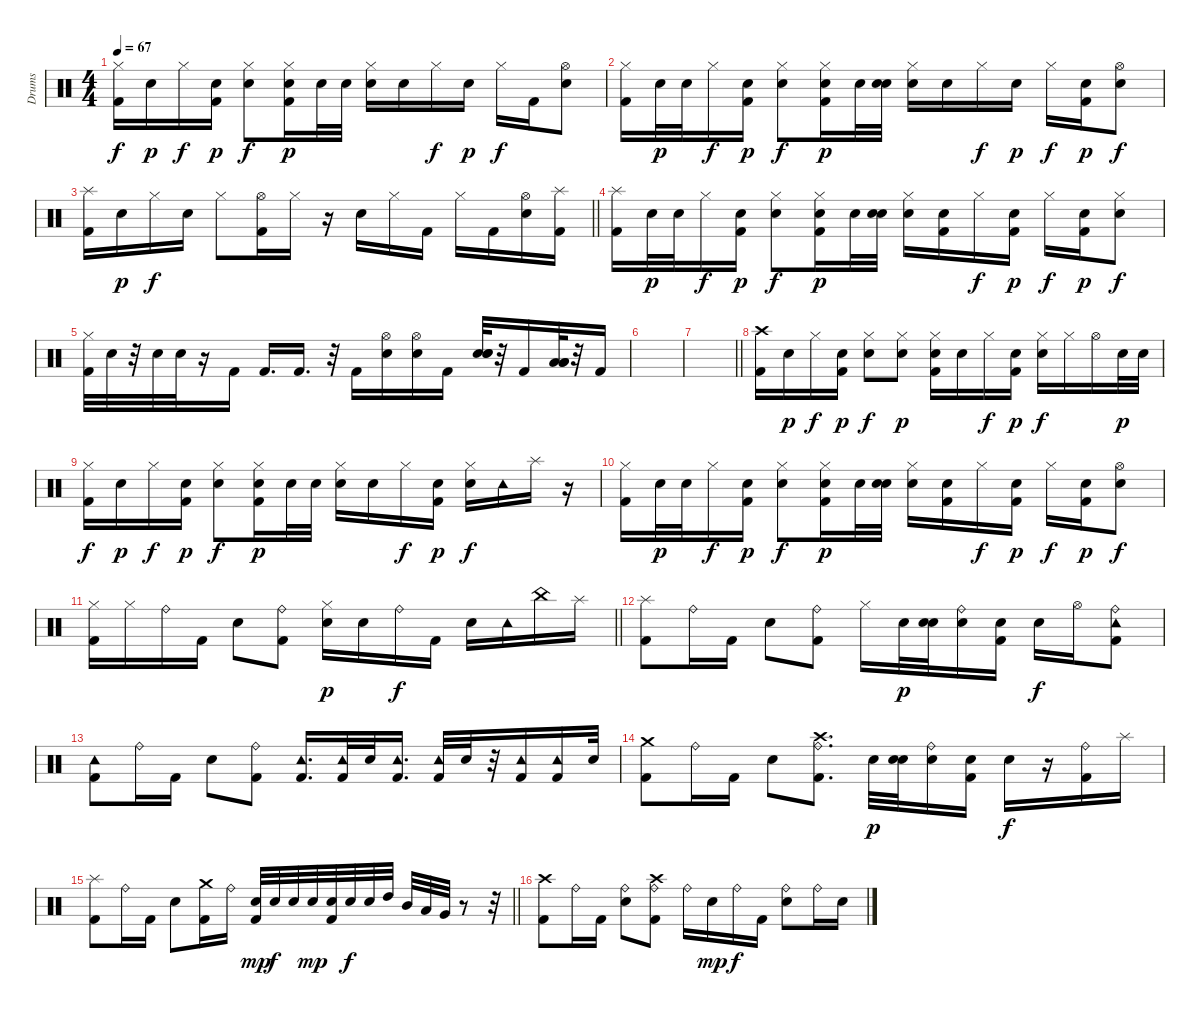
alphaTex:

\track ("Drums" "Drums") {instrument percussion}
\staff {score}
\articulation defaults
\ts (4 4)
\tempo 67
\clef neutral
\ks c
("Kick (hit) 2" "Hi-Hat (closed)").16{dy f} "Electric Snare (hit)".16{dy p} "Hi-Hat (closed)".16{dy f} ("Kick (hit) 2" "Electric Snare (hit)").16{dy p} ("Hi-Hat (closed)" "Electric Snare (hit)").8{dy f} ("Hi-Hat (closed)" "Kick (hit) 2" "Electric Snare (hit)").16{dy p} "Electric Snare (hit)".32 "Electric Snare (hit)".32 ("Hi-Hat (closed)" "Electric Snare (hit)").16 "Electric Snare (hit)".16 "Hi-Hat (closed)".16{dy f} "Electric Snare (hit)".16{dy p} "Hi-Hat (closed)".16{dy f} "Kick (hit) 2".16 ("Electric Snare (hit)" "Hi-Hat (open)").8 |
("Hi-Hat (closed)" "Kick (hit) 2").16 "Electric Snare (hit)".32{dy p} "Electric Snare (hit)".32 "Hi-Hat (closed)".16{dy f} ("Kick (hit) 2" "Electric Snare (hit)").16{dy p} ("Hi-Hat (closed)" "Electric Snare (hit)").8{dy f} ("Hi-Hat (closed)" "Kick (hit) 2" "Electric Snare (hit)").16{dy p} "Electric Snare (hit)".32 ("Electric Snare (hit)" "Electric Snare (hit)").32 ("Hi-Hat (closed)" "Electric Snare (hit)").16 "Electric Snare (hit)".16 "Hi-Hat (closed)".16{dy f} "Electric Snare (hit)".16{dy p} "Hi-Hat (closed)".16{dy f} ("Kick (hit) 2" "Electric Snare (hit)").16{dy p} ("Hi-Hat (open)" "Electric Snare (hit)").8{dy f} |
\barLineRight lightlight
("Kick (hit) 2" "Splash (hit)").16 "Electric Snare (hit)".16{dy p} "Hi-Hat (closed)".16{dy f} "Electric Snare (hit)".16 "Hi-Hat (closed)".8 ("Kick (hit) 2" "Hi-Hat (open)").16 "Hi-Hat (closed)".16 r.16 "Electric Snare (hit)".16 "Hi-Hat (closed)".16 "Kick (hit) 2".16 "Hi-Hat (closed)".16 "Kick (hit) 2".16 ("Electric Snare (hit)" "Hi-Hat (open)").16 ("Kick (hit) 2" "Splash (hit)").16 |
("Kick (hit) 2" "Splash (hit)").16 "Electric Snare (hit)".32{dy p} "Electric Snare (hit)".32 "Hi-Hat (closed)".16{dy f} ("Kick (hit) 2" "Electric Snare (hit)").16{dy p} ("Hi-Hat (closed)" "Electric Snare (hit)").8{dy f} ("Hi-Hat (closed)" "Kick (hit) 2" "Electric Snare (hit)").16{dy p} "Electric Snare (hit)".32 ("Electric Snare (hit)" "Electric Snare (hit)").32 ("Hi-Hat (closed)" "Electric Snare (hit)").16 ("Kick (hit) 2" "Electric Snare (hit)").16 "Hi-Hat (closed)".16{dy f} ("Kick (hit) 2" "Electric Snare (hit)").16{dy p} "Hi-Hat (closed)".16{dy f} ("Kick (hit) 2" "Electric Snare (hit)").16{dy p} ("Electric Snare (hit)" "Hi-Hat (closed)").8{dy f} |
("Kick (hit) 2" "Hi-Hat (closed)").32 "Electric Snare (hit)".32 r.32 "Electric Snare (hit)".32 "Electric Snare (hit)".32 r.16 "Kick (hit) 2".16 "Kick (hit) 2".16{d} "Kick (hit) 2".16{d} r.32 "Kick (hit) 2".16 ("Electric Snare (hit)" "Hi-Hat (open)").16 ("Electric Snare (hit)" "Hi-Hat (open)").16 "Kick (hit) 2".16 ("Electric Snare (hit)" "Electric Snare (hit)" "Electric Snare (hit)").32 r.32 "Kick (hit) 2".16 ("Low Tom (hit)" "Low Tom (hit)" "Low Tom (hit)").32 r.32 "Kick (hit) 2".16 |
|
\barLineRight lightlight
|
("Crash high (hit)" "Kick (hit) 2").16 "Electric Snare (hit)".16{dy p} "Hi-Hat (closed)".16{dy f} ("Kick (hit) 2" "Electric Snare (hit)").16{dy p} ("Hi-Hat (closed)" "Electric Snare (hit)").8{dy f} ("Hi-Hat (closed)" "Electric Snare (hit)").8{dy p} ("Hi-Hat (closed)" "Kick (hit) 2" "Electric Snare (hit)").16 "Electric Snare (hit)".16 "Hi-Hat (closed)".16{dy f} ("Kick (hit) 2" "Electric Snare (hit)").16{dy p} ("Electric Snare (hit)" "Hi-Hat (closed)").16{dy f} "Hi-Hat (closed)".16 "Hi-Hat (open)".16 "Electric Snare (hit)".32{dy p} "Electric Snare (hit)".32 |
("Kick (hit) 2" "Hi-Hat (closed)").16{dy f} "Electric Snare (hit)".16{dy p} "Hi-Hat (closed)".16{dy f} ("Kick (hit) 2" "Electric Snare (hit)").16{dy p} ("Hi-Hat (closed)" "Electric Snare (hit)").8{dy f} ("Hi-Hat (closed)" "Kick (hit) 2" "Electric Snare (hit)").16{dy p} "Electric Snare (hit)".32 "Electric Snare (hit)".32 ("Hi-Hat (closed)" "Electric Snare (hit)").16 "Electric Snare (hit)".16 "Hi-Hat (closed)".16{dy f} ("Kick (hit) 2" "Electric Snare (hit)").16{dy p} ("Electric Snare (hit)" "Hi-Hat (closed)").16{dy f} "Tambourine (hit)".16 "Splash (hit)".16 r.16 |
("Hi-Hat (closed)" "Kick (hit) 2").16 "Electric Snare (hit)".32{dy p} "Electric Snare (hit)".32 "Hi-Hat (closed)".16{dy f} ("Kick (hit) 2" "Electric Snare (hit)").16{dy p} ("Hi-Hat (closed)" "Electric Snare (hit)").8{dy f} ("Hi-Hat (closed)" "Kick (hit) 2" "Electric Snare (hit)").16{dy p} "Electric Snare (hit)".32 ("Electric Snare (hit)" "Electric Snare (hit)").32 ("Hi-Hat (closed)" "Electric Snare (hit)").16 ("Kick (hit) 2" "Electric Snare (hit)").16 "Hi-Hat (closed)".16{dy f} ("Kick (hit) 2" "Electric Snare (hit)").16{dy p} "Hi-Hat (closed)".16{dy f} ("Kick (hit) 2" "Electric Snare (hit)").16{dy p} ("Hi-Hat (open)" "Electric Snare (hit)").8{dy f} |
\barLineRight lightlight
("Hi-Hat (closed)" "Kick (hit) 2").16 "Hi-Hat (closed)".16 "Ride (bell)".16 "Kick (hit) 2".16 "Electric Snare (hit)".8 ("Kick (hit) 2" "Ride (bell)").8 ("Hi-Hat (closed)" "Electric Snare (hit)").16{dy p} "Electric Snare (hit)".16 "Ride (bell)".16{dy f} "Kick (hit) 2".16 "Electric Snare (hit)".16 "Tambourine (hit)".16 "China (hit)".16 "Splash (hit)".16 |
("Splash (hit)" "Kick (hit) 2").8 "Ride (bell)".16 "Kick (hit) 2".16 "Electric Snare (hit)".8 ("Kick (hit) 2" "Ride (bell)").8 "Hi-Hat (closed)".16 "Electric Snare (hit)".32{dy p} ("Electric Snare (hit)" "Electric Snare (hit)").32 ("Ride (bell)" "Electric Snare (hit)").16 ("Kick (hit) 2" "Electric Snare (hit)").16 "Electric Snare (hit)".16{dy f} "Hi-Hat (open)".16 ("Ride (bell)" "Tambourine (hit)" "Kick (hit) 2").8 |
("Kick (hit) 2" "Tambourine (hit)").8 "Ride (bell)".16 "Kick (hit) 2".16 "Electric Snare (hit)".8 ("Ride (bell)" "Kick (hit) 2").8 ("Kick (hit) 2" "Tambourine (hit)").16{d} ("Kick (hit) 2" "Tambourine (hit)").32 "Electric Snare (hit)".32 ("Kick (hit) 2" "Tambourine (hit)").16{d} ("Kick (hit) 2" "Tambourine (hit)").32 "Electric Snare (hit)".32 r.32 ("Kick (hit) 2" "Tambourine (hit)").16 ("Kick (hit) 2" "Tambourine (hit)").16 "Electric Snare (hit)".32 |
("Kick (hit) 2" "Crash medium (hit)").8 "Ride (bell)".16 "Kick (hit) 2".16 "Electric Snare (hit)".8 ("Ride (bell)" "Kick (hit) 2" "Crash high (hit)").8{d} "Electric Snare (hit)".32{dy p} ("Electric Snare (hit)" "Electric Snare (hit)").32 ("Ride (bell)" "Electric Snare (hit)").16 ("Kick (hit) 2" "Electric Snare (hit)").16 "Electric Snare (hit)".16{dy f} r.16 ("Ride (bell)" "Kick (hit) 2").16 "Splash (hit)".16 |
\barLineRight lightlight
("Kick (hit) 2" "Splash (hit)").8 "Ride (bell)".16 "Kick (hit) 2".16 "Electric Snare (hit)".8 ("Kick (hit) 2" "Crash medium (hit)").16 "Ride (bell)".16 ("Kick (hit) 2" "Electric Snare (hit)").32{dy mp} "Electric Snare (hit)".32{dy f} "Electric Snare (hit)".32 "Electric Snare (hit)".32{dy mp} ("Kick (hit) 2" "Electric Snare (hit)").32 "Electric Snare (hit)".32{dy f} "Electric Snare (hit)".32 "High Tom (hit)".32 "Mid Tom (hit)".32 "Low Tom (hit)".32 "Very Low Tom (hit)".32 r.8 r.32 |
("Kick (hit) 2" "Crash high (hit)").8 "Ride (bell)".16 "Kick (hit) 2".16 ("Electric Snare (hit)" "Ride (bell)").8 ("Kick (hit) 2" "Ride (bell)" "Crash high (hit)").8 "Ride (bell)".16 "Electric Snare (hit)".16{dy mp} "Ride (bell)".16{dy f} "Kick (hit) 2".16 ("Electric Snare (hit)" "Ride (bell)").8 "Ride (bell)".16 "Electric Snare (hit)".16
